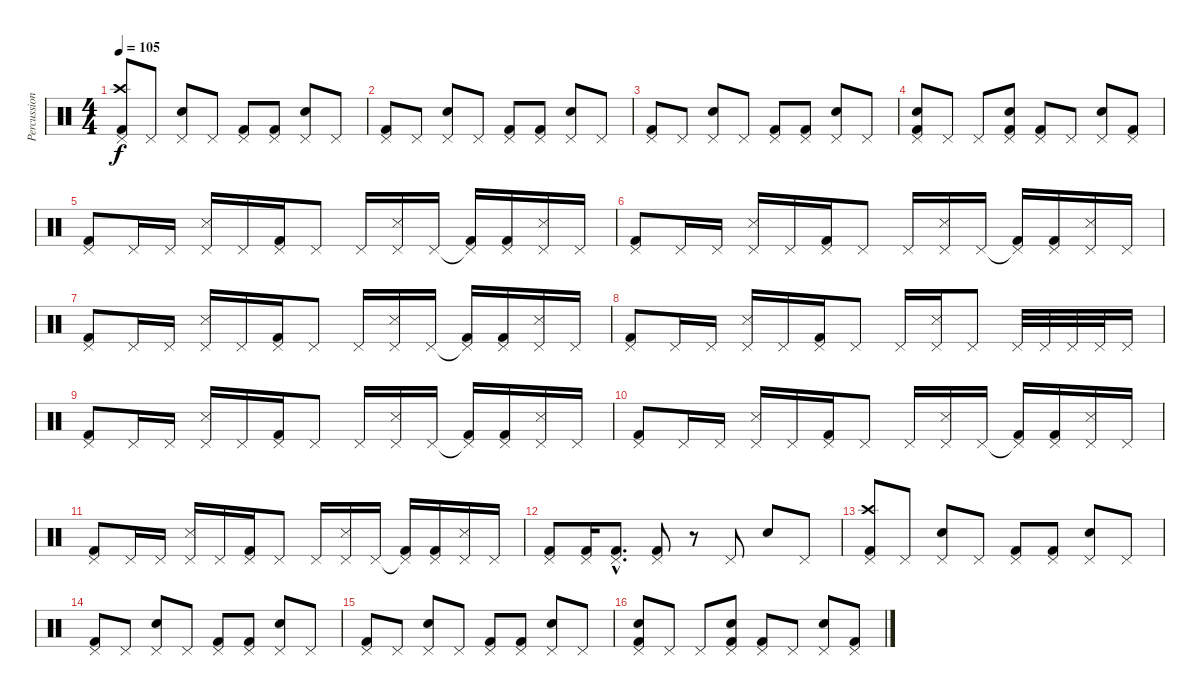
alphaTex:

\track ("Percussion" "Percussion") {instrument percussion}
\staff {score}
\articulation defaults
\ts (4 4)
\tempo 105
\clef neutral
\ks c
("Pedal Hi-Hat (hit)" "Crash high (hit)" "Kick (hit) 2").8{dy f} "Pedal Hi-Hat (hit)".8 ("Pedal Hi-Hat (hit)" "Snare (hit) 2").8 "Pedal Hi-Hat (hit)".8 ("Pedal Hi-Hat (hit)" "Kick (hit) 2").8 ("Pedal Hi-Hat (hit)" "Kick (hit) 2").8 ("Pedal Hi-Hat (hit)" "Snare (hit) 2").8 "Pedal Hi-Hat (hit)".8 |
("Pedal Hi-Hat (hit)" "Kick (hit) 2").8 "Pedal Hi-Hat (hit)".8 ("Pedal Hi-Hat (hit)" "Snare (hit) 2").8 "Pedal Hi-Hat (hit)".8 ("Pedal Hi-Hat (hit)" "Kick (hit) 2").8 ("Pedal Hi-Hat (hit)" "Kick (hit) 2").8 ("Pedal Hi-Hat (hit)" "Snare (hit) 2").8 "Pedal Hi-Hat (hit)".8 |
("Pedal Hi-Hat (hit)" "Kick (hit) 2").8 "Pedal Hi-Hat (hit)".8 ("Pedal Hi-Hat (hit)" "Snare (hit) 2").8 "Pedal Hi-Hat (hit)".8 ("Pedal Hi-Hat (hit)" "Kick (hit) 2").8 ("Pedal Hi-Hat (hit)" "Kick (hit) 2").8 ("Pedal Hi-Hat (hit)" "Snare (hit) 2").8 "Pedal Hi-Hat (hit)".8 |
("Pedal Hi-Hat (hit)" "Snare (hit) 2" "Kick (hit) 2").8 "Pedal Hi-Hat (hit)".8 "Pedal Hi-Hat (hit)".8 ("Pedal Hi-Hat (hit)" "Snare (hit) 2" "Kick (hit) 2").8 ("Pedal Hi-Hat (hit)" "Kick (hit) 2").8 "Pedal Hi-Hat (hit)".8 ("Pedal Hi-Hat (hit)" "Snare (hit) 2").8 ("Pedal Hi-Hat (hit)" "Kick (hit) 2").8 |
("Pedal Hi-Hat (hit)" "Kick (hit) 2").8{volume 12} "Pedal Hi-Hat (hit)".16 "Pedal Hi-Hat (hit)".16 ("Pedal Hi-Hat (hit)" "Snare (side stick) 3").16 "Pedal Hi-Hat (hit)".16 ("Pedal Hi-Hat (hit)" "Kick (hit) 2").16 "Pedal Hi-Hat (hit)".8 "Pedal Hi-Hat (hit)".16 ("Pedal Hi-Hat (hit)" "Snare (side stick) 3").16 "Pedal Hi-Hat (hit)".16 ("Pedal Hi-Hat (hit)"{t} "Kick (hit) 2").16 ("Pedal Hi-Hat (hit)" "Kick (hit) 2").16 ("Pedal Hi-Hat (hit)" "Snare (side stick) 3").16 "Pedal Hi-Hat (hit)".16 |
("Pedal Hi-Hat (hit)" "Kick (hit) 2").8 "Pedal Hi-Hat (hit)".16 "Pedal Hi-Hat (hit)".16 ("Pedal Hi-Hat (hit)" "Snare (side stick) 3").16 "Pedal Hi-Hat (hit)".16 ("Pedal Hi-Hat (hit)" "Kick (hit) 2").16 "Pedal Hi-Hat (hit)".8 "Pedal Hi-Hat (hit)".16 ("Pedal Hi-Hat (hit)" "Snare (side stick) 3").16 "Pedal Hi-Hat (hit)".16 ("Pedal Hi-Hat (hit)"{t} "Kick (hit) 2").16 ("Pedal Hi-Hat (hit)" "Kick (hit) 2").16 ("Pedal Hi-Hat (hit)" "Snare (side stick) 3").16 "Pedal Hi-Hat (hit)".16 |
("Pedal Hi-Hat (hit)" "Kick (hit) 2").8 "Pedal Hi-Hat (hit)".16 "Pedal Hi-Hat (hit)".16 ("Pedal Hi-Hat (hit)" "Snare (side stick) 3").16 "Pedal Hi-Hat (hit)".16 ("Pedal Hi-Hat (hit)" "Kick (hit) 2").16 "Pedal Hi-Hat (hit)".8 "Pedal Hi-Hat (hit)".16 ("Pedal Hi-Hat (hit)" "Snare (side stick) 3").16 "Pedal Hi-Hat (hit)".16 ("Pedal Hi-Hat (hit)"{t} "Kick (hit) 2").16 ("Pedal Hi-Hat (hit)" "Kick (hit) 2").16 ("Pedal Hi-Hat (hit)" "Snare (side stick) 3").16 "Pedal Hi-Hat (hit)".16 |
("Pedal Hi-Hat (hit)" "Kick (hit) 2").8 "Pedal Hi-Hat (hit)".16 "Pedal Hi-Hat (hit)".16 ("Pedal Hi-Hat (hit)" "Snare (side stick) 3").16 "Pedal Hi-Hat (hit)".16 ("Pedal Hi-Hat (hit)" "Kick (hit) 2").16 "Pedal Hi-Hat (hit)".8 "Pedal Hi-Hat (hit)".16 ("Pedal Hi-Hat (hit)" "Snare (side stick) 3").16 "Pedal Hi-Hat (hit)".8 "Pedal Hi-Hat (hit)".32 "Pedal Hi-Hat (hit)".32 "Pedal Hi-Hat (hit)".32 "Pedal Hi-Hat (hit)".32 "Pedal Hi-Hat (hit)".16 |
("Pedal Hi-Hat (hit)" "Kick (hit) 2").8 "Pedal Hi-Hat (hit)".16 "Pedal Hi-Hat (hit)".16 ("Pedal Hi-Hat (hit)" "Snare (side stick) 3").16 "Pedal Hi-Hat (hit)".16 ("Pedal Hi-Hat (hit)" "Kick (hit) 2").16 "Pedal Hi-Hat (hit)".8 "Pedal Hi-Hat (hit)".16 ("Pedal Hi-Hat (hit)" "Snare (side stick) 3").16 "Pedal Hi-Hat (hit)".16 ("Pedal Hi-Hat (hit)"{t} "Kick (hit) 2").16 ("Pedal Hi-Hat (hit)" "Kick (hit) 2").16 ("Pedal Hi-Hat (hit)" "Snare (side stick) 3").16 "Pedal Hi-Hat (hit)".16 |
("Pedal Hi-Hat (hit)" "Kick (hit) 2").8 "Pedal Hi-Hat (hit)".16 "Pedal Hi-Hat (hit)".16 ("Pedal Hi-Hat (hit)" "Snare (side stick) 3").16 "Pedal Hi-Hat (hit)".16 ("Pedal Hi-Hat (hit)" "Kick (hit) 2").16 "Pedal Hi-Hat (hit)".8 "Pedal Hi-Hat (hit)".16 ("Pedal Hi-Hat (hit)" "Snare (side stick) 3").16 "Pedal Hi-Hat (hit)".16 ("Pedal Hi-Hat (hit)"{t} "Kick (hit) 2").16 ("Pedal Hi-Hat (hit)" "Kick (hit) 2").16 ("Pedal Hi-Hat (hit)" "Snare (side stick) 3").16 "Pedal Hi-Hat (hit)".16 |
("Pedal Hi-Hat (hit)" "Kick (hit) 2").8 "Pedal Hi-Hat (hit)".16 "Pedal Hi-Hat (hit)".16 ("Pedal Hi-Hat (hit)" "Snare (side stick) 3").16 "Pedal Hi-Hat (hit)".16 ("Pedal Hi-Hat (hit)" "Kick (hit) 2").16 "Pedal Hi-Hat (hit)".8 "Pedal Hi-Hat (hit)".16 ("Pedal Hi-Hat (hit)" "Snare (side stick) 3").16 "Pedal Hi-Hat (hit)".16 ("Pedal Hi-Hat (hit)"{t} "Kick (hit) 2").16 ("Pedal Hi-Hat (hit)" "Kick (hit) 2").16 ("Pedal Hi-Hat (hit)" "Snare (side stick) 3").16 "Pedal Hi-Hat (hit)".16 |
("Pedal Hi-Hat (hit)" "Kick (hit) 2").8{volume 14} ("Pedal Hi-Hat (hit)" "Kick (hit) 2").16 ("Pedal Hi-Hat (hit)"{hac} "Kick (hit) 2"{hac}).8{d} ("Pedal Hi-Hat (hit)" "Kick (hit) 2").8 r.8 "Pedal Hi-Hat (hit)".8 "Snare (hit) 2".8 "Pedal Hi-Hat (hit)".8 |
("Pedal Hi-Hat (hit)" "Crash high (hit)" "Kick (hit) 2").8 "Pedal Hi-Hat (hit)".8 ("Pedal Hi-Hat (hit)" "Snare (hit) 2").8 "Pedal Hi-Hat (hit)".8 ("Pedal Hi-Hat (hit)" "Kick (hit) 2").8 ("Pedal Hi-Hat (hit)" "Kick (hit) 2").8 ("Pedal Hi-Hat (hit)" "Snare (hit) 2").8 "Pedal Hi-Hat (hit)".8 |
("Pedal Hi-Hat (hit)" "Kick (hit) 2").8 "Pedal Hi-Hat (hit)".8 ("Pedal Hi-Hat (hit)" "Snare (hit) 2").8 "Pedal Hi-Hat (hit)".8 ("Pedal Hi-Hat (hit)" "Kick (hit) 2").8 ("Pedal Hi-Hat (hit)" "Kick (hit) 2").8 ("Pedal Hi-Hat (hit)" "Snare (hit) 2").8 "Pedal Hi-Hat (hit)".8 |
("Pedal Hi-Hat (hit)" "Kick (hit) 2").8 "Pedal Hi-Hat (hit)".8 ("Pedal Hi-Hat (hit)" "Snare (hit) 2").8 "Pedal Hi-Hat (hit)".8 ("Pedal Hi-Hat (hit)" "Kick (hit) 2").8 ("Pedal Hi-Hat (hit)" "Kick (hit) 2").8 ("Pedal Hi-Hat (hit)" "Snare (hit) 2").8 "Pedal Hi-Hat (hit)".8 |
("Pedal Hi-Hat (hit)" "Snare (hit) 2" "Kick (hit) 2").8 "Pedal Hi-Hat (hit)".8 "Pedal Hi-Hat (hit)".8 ("Pedal Hi-Hat (hit)" "Snare (hit) 2" "Kick (hit) 2").8 ("Pedal Hi-Hat (hit)" "Kick (hit) 2").8 "Pedal Hi-Hat (hit)".8 ("Pedal Hi-Hat (hit)" "Snare (hit) 2").8 ("Pedal Hi-Hat (hit)" "Kick (hit) 2").8
